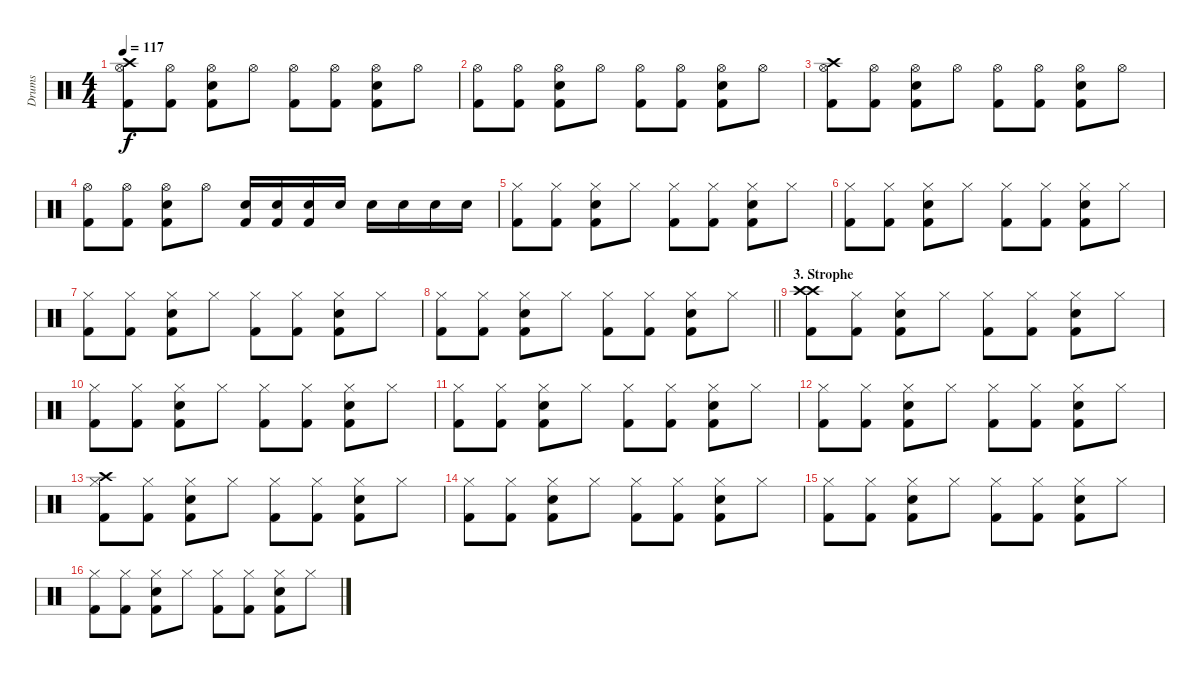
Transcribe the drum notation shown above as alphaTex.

\track ("Drums" "Drums") {instrument percussion}
\staff {score}
\articulation defaults
\ts (4 4)
\tempo 117
\clef neutral
\ks c
("Kick (hit) 2" "Hi-Hat (open)" "Crash high (hit)").8{dy f} ("Kick (hit) 2" "Hi-Hat (open)").8 ("Kick (hit) 2" "Hi-Hat (open)" "Snare (hit) 2").8 "Hi-Hat (open)".8 ("Kick (hit) 2" "Hi-Hat (open)").8 ("Kick (hit) 2" "Hi-Hat (open)").8 ("Kick (hit) 2" "Hi-Hat (open)" "Snare (hit) 2").8 "Hi-Hat (open)".8 |
("Kick (hit) 2" "Hi-Hat (open)").8 ("Kick (hit) 2" "Hi-Hat (open)").8 ("Kick (hit) 2" "Hi-Hat (open)" "Snare (hit) 2").8 "Hi-Hat (open)".8 ("Kick (hit) 2" "Hi-Hat (open)").8 ("Kick (hit) 2" "Hi-Hat (open)").8 ("Kick (hit) 2" "Hi-Hat (open)" "Snare (hit) 2").8 "Hi-Hat (open)".8 |
("Kick (hit) 2" "Hi-Hat (open)" "Crash high (hit)").8 ("Kick (hit) 2" "Hi-Hat (open)").8 ("Kick (hit) 2" "Hi-Hat (open)" "Snare (hit) 2").8 "Hi-Hat (open)".8 ("Kick (hit) 2" "Hi-Hat (open)").8 ("Kick (hit) 2" "Hi-Hat (open)").8 ("Kick (hit) 2" "Hi-Hat (open)" "Snare (hit) 2").8 "Hi-Hat (open)".8 |
("Kick (hit) 2" "Hi-Hat (open)").8 ("Kick (hit) 2" "Hi-Hat (open)").8 ("Kick (hit) 2" "Hi-Hat (open)" "Snare (hit) 2").8 "Hi-Hat (open)".8 ("Kick (hit) 2" "Snare (hit) 2").16 ("Kick (hit) 2" "Snare (hit) 2").16 ("Kick (hit) 2" "Snare (hit) 2").16 "Snare (hit) 2".16 "Snare (hit) 2".16 "Snare (hit) 2".16 "Snare (hit) 2".16 "Snare (hit) 2".16 |
("Kick (hit) 2" "Hi-Hat (closed)").8{volume 4} ("Kick (hit) 2" "Hi-Hat (closed)").8 ("Kick (hit) 2" "Hi-Hat (closed)" "Snare (hit) 2").8 "Hi-Hat (closed)".8 ("Kick (hit) 2" "Hi-Hat (closed)").8 ("Kick (hit) 2" "Hi-Hat (closed)").8 ("Kick (hit) 2" "Hi-Hat (closed)" "Snare (hit) 2").8 "Hi-Hat (closed)".8 |
("Kick (hit) 2" "Hi-Hat (closed)").8 ("Kick (hit) 2" "Hi-Hat (closed)").8 ("Kick (hit) 2" "Hi-Hat (closed)" "Snare (hit) 2").8 "Hi-Hat (closed)".8 ("Kick (hit) 2" "Hi-Hat (closed)").8 ("Kick (hit) 2" "Hi-Hat (closed)").8 ("Kick (hit) 2" "Hi-Hat (closed)" "Snare (hit) 2").8 "Hi-Hat (closed)".8 |
("Kick (hit) 2" "Hi-Hat (closed)").8 ("Kick (hit) 2" "Hi-Hat (closed)").8 ("Kick (hit) 2" "Hi-Hat (closed)" "Snare (hit) 2").8 "Hi-Hat (closed)".8 ("Kick (hit) 2" "Hi-Hat (closed)").8 ("Kick (hit) 2" "Hi-Hat (closed)").8 ("Kick (hit) 2" "Hi-Hat (closed)" "Snare (hit) 2").8 "Hi-Hat (closed)".8 |
\barLineRight lightlight
("Kick (hit) 2" "Hi-Hat (closed)").8 ("Kick (hit) 2" "Hi-Hat (closed)").8 ("Kick (hit) 2" "Hi-Hat (closed)" "Snare (hit) 2").8 "Hi-Hat (closed)".8 ("Kick (hit) 2" "Hi-Hat (closed)").8 ("Kick (hit) 2" "Hi-Hat (closed)").8 ("Kick (hit) 2" "Hi-Hat (closed)" "Snare (hit) 2").8 "Hi-Hat (closed)".8 |
\section ("" "3. Strophe")
("Kick (hit) 2" "Crash high (hit)" "Crash high (hit)").8{volume 13} ("Kick (hit) 2" "Hi-Hat (closed)").8 ("Kick (hit) 2" "Hi-Hat (closed)" "Snare (hit) 2").8 "Hi-Hat (closed)".8 ("Kick (hit) 2" "Hi-Hat (closed)").8 ("Kick (hit) 2" "Hi-Hat (closed)").8 ("Kick (hit) 2" "Hi-Hat (closed)" "Snare (hit) 2").8 "Hi-Hat (closed)".8 |
("Kick (hit) 2" "Hi-Hat (closed)").8 ("Kick (hit) 2" "Hi-Hat (closed)").8 ("Kick (hit) 2" "Hi-Hat (closed)" "Snare (hit) 2").8 "Hi-Hat (closed)".8 ("Kick (hit) 2" "Hi-Hat (closed)").8 ("Kick (hit) 2" "Hi-Hat (closed)").8 ("Kick (hit) 2" "Hi-Hat (closed)" "Snare (hit) 2").8 "Hi-Hat (closed)".8 |
("Kick (hit) 2" "Hi-Hat (closed)").8 ("Kick (hit) 2" "Hi-Hat (closed)").8 ("Kick (hit) 2" "Hi-Hat (closed)" "Snare (hit) 2").8 "Hi-Hat (closed)".8 ("Kick (hit) 2" "Hi-Hat (closed)").8 ("Kick (hit) 2" "Hi-Hat (closed)").8 ("Kick (hit) 2" "Hi-Hat (closed)" "Snare (hit) 2").8 "Hi-Hat (closed)".8 |
("Kick (hit) 2" "Hi-Hat (closed)").8 ("Kick (hit) 2" "Hi-Hat (closed)").8 ("Kick (hit) 2" "Hi-Hat (closed)" "Snare (hit) 2").8 "Hi-Hat (closed)".8 ("Kick (hit) 2" "Hi-Hat (closed)").8 ("Kick (hit) 2" "Hi-Hat (closed)").8 ("Kick (hit) 2" "Hi-Hat (closed)" "Snare (hit) 2").8 "Hi-Hat (closed)".8 |
("Kick (hit) 2" "Hi-Hat (closed)" "Crash high (hit)").8 ("Kick (hit) 2" "Hi-Hat (closed)").8 ("Kick (hit) 2" "Hi-Hat (closed)" "Snare (hit) 2").8 "Hi-Hat (closed)".8 ("Kick (hit) 2" "Hi-Hat (closed)").8 ("Kick (hit) 2" "Hi-Hat (closed)").8 ("Kick (hit) 2" "Hi-Hat (closed)" "Snare (hit) 2").8 "Hi-Hat (closed)".8 |
("Kick (hit) 2" "Hi-Hat (closed)").8 ("Kick (hit) 2" "Hi-Hat (closed)").8 ("Kick (hit) 2" "Hi-Hat (closed)" "Snare (hit) 2").8 "Hi-Hat (closed)".8 ("Kick (hit) 2" "Hi-Hat (closed)").8 ("Kick (hit) 2" "Hi-Hat (closed)").8 ("Kick (hit) 2" "Hi-Hat (closed)" "Snare (hit) 2").8 "Hi-Hat (closed)".8 |
("Kick (hit) 2" "Hi-Hat (closed)").8 ("Kick (hit) 2" "Hi-Hat (closed)").8 ("Kick (hit) 2" "Hi-Hat (closed)" "Snare (hit) 2").8 "Hi-Hat (closed)".8 ("Kick (hit) 2" "Hi-Hat (closed)").8 ("Kick (hit) 2" "Hi-Hat (closed)").8 ("Kick (hit) 2" "Hi-Hat (closed)" "Snare (hit) 2").8 "Hi-Hat (closed)".8 |
("Kick (hit) 2" "Hi-Hat (closed)").8 ("Kick (hit) 2" "Hi-Hat (closed)").8 ("Kick (hit) 2" "Hi-Hat (closed)" "Snare (hit) 2").8 "Hi-Hat (closed)".8 ("Kick (hit) 2" "Hi-Hat (closed)").8 ("Kick (hit) 2" "Hi-Hat (closed)").8 ("Kick (hit) 2" "Hi-Hat (closed)" "Snare (hit) 2").8 "Hi-Hat (closed)".8
